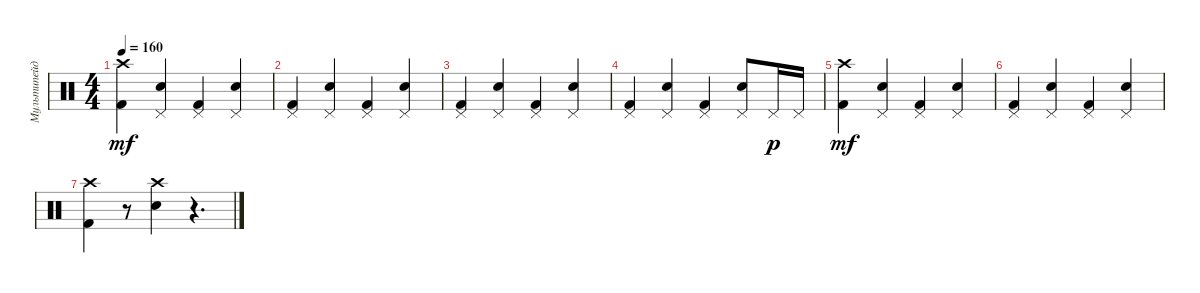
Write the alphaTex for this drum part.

\track ("Мультипейджер" "Мультипейд") {instrument percussion}
\staff {score}
\articulation defaults
\ts (4 4)
\tempo 160
\clef neutral
\ks c
("Crash high (hit)" "Kick (hit) 2").4{dy mf} ("Pedal Hi-Hat (hit)" "Snare (hit) 2").4 ("Pedal Hi-Hat (hit)" "Kick (hit) 2").4 ("Pedal Hi-Hat (hit)" "Snare (hit) 2").4 |
("Pedal Hi-Hat (hit)" "Kick (hit) 2").4 ("Pedal Hi-Hat (hit)" "Snare (hit) 2").4 ("Pedal Hi-Hat (hit)" "Kick (hit) 2").4 ("Pedal Hi-Hat (hit)" "Snare (hit) 2").4 |
("Pedal Hi-Hat (hit)" "Kick (hit) 2").4 ("Pedal Hi-Hat (hit)" "Snare (hit) 2").4 ("Pedal Hi-Hat (hit)" "Kick (hit) 2").4 ("Pedal Hi-Hat (hit)" "Snare (hit) 2").4 |
("Pedal Hi-Hat (hit)" "Kick (hit) 2").4 ("Pedal Hi-Hat (hit)" "Snare (hit) 2").4 ("Pedal Hi-Hat (hit)" "Kick (hit) 2").4 ("Pedal Hi-Hat (hit)" "Snare (hit) 2").8 "Pedal Hi-Hat (hit)".16{dy p} "Pedal Hi-Hat (hit)".16 |
("Crash high (hit)" "Kick (hit) 2").4{dy mf} ("Pedal Hi-Hat (hit)" "Snare (hit) 2").4 ("Pedal Hi-Hat (hit)" "Kick (hit) 2").4 ("Pedal Hi-Hat (hit)" "Snare (hit) 2").4 |
("Pedal Hi-Hat (hit)" "Kick (hit) 2").4 ("Pedal Hi-Hat (hit)" "Snare (hit) 2").4 ("Pedal Hi-Hat (hit)" "Kick (hit) 2").4 ("Pedal Hi-Hat (hit)" "Snare (hit) 2").4 |
("Crash high (hit)" "Kick (hit) 2").4 r.8 ("Crash high (hit)" "Snare (hit) 2").4 r.4{d}
